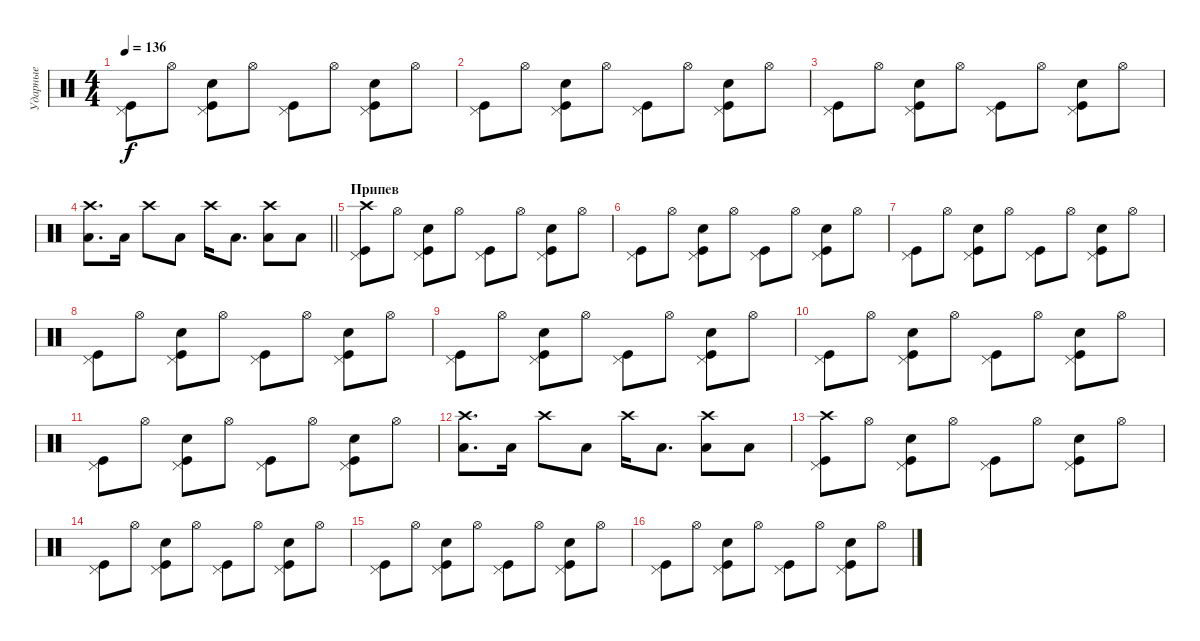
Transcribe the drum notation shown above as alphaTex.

\track ("Ударные" "Ударные") {instrument percussion}
\staff {score}
\articulation defaults
\ts (4 4)
\tempo 136
\clef neutral
\ks c
("Kick (hit)" "Pedal Hi-Hat (hit)").8{dy f} "Hi-Hat (open)".8 ("Kick (hit)" "Hand Clap (hit)" "Pedal Hi-Hat (hit)").8 "Hi-Hat (open)".8 ("Kick (hit)" "Pedal Hi-Hat (hit)").8 "Hi-Hat (open)".8 ("Kick (hit)" "Hand Clap (hit)" "Pedal Hi-Hat (hit)").8 "Hi-Hat (open)".8 |
("Kick (hit)" "Pedal Hi-Hat (hit)").8 "Hi-Hat (open)".8 ("Kick (hit)" "Hand Clap (hit)" "Pedal Hi-Hat (hit)").8 "Hi-Hat (open)".8 ("Kick (hit)" "Pedal Hi-Hat (hit)").8 "Hi-Hat (open)".8 ("Kick (hit)" "Hand Clap (hit)" "Pedal Hi-Hat (hit)").8 "Hi-Hat (open)".8 |
("Kick (hit)" "Pedal Hi-Hat (hit)").8 "Hi-Hat (open)".8 ("Kick (hit)" "Hand Clap (hit)" "Pedal Hi-Hat (hit)").8 "Hi-Hat (open)".8 ("Kick (hit)" "Pedal Hi-Hat (hit)").8 "Hi-Hat (open)".8 ("Kick (hit)" "Hand Clap (hit)" "Pedal Hi-Hat (hit)").8 "Hi-Hat (open)".8 |
\barLineRight lightlight
("Low Tom (hit)" "Crash high (hit)").8{d} "Low Tom (hit)".16 "Crash high (hit)".8 "Low Tom (hit)".8 "Crash high (hit)".16 "Low Tom (hit)".8{d} ("Low Tom (hit)" "Crash high (hit)").8 "Low Tom (hit)".8 |
\section ("" "Припев")
("Kick (hit)" "Crash high (hit)" "Pedal Hi-Hat (hit)").8 "Hi-Hat (open)".8 ("Kick (hit)" "Hand Clap (hit)" "Pedal Hi-Hat (hit)").8 "Hi-Hat (open)".8 ("Kick (hit)" "Pedal Hi-Hat (hit)").8 "Hi-Hat (open)".8 ("Kick (hit)" "Hand Clap (hit)" "Pedal Hi-Hat (hit)").8 "Hi-Hat (open)".8 |
("Kick (hit)" "Pedal Hi-Hat (hit)").8 "Hi-Hat (open)".8 ("Kick (hit)" "Hand Clap (hit)" "Pedal Hi-Hat (hit)").8 "Hi-Hat (open)".8 ("Kick (hit)" "Pedal Hi-Hat (hit)").8 "Hi-Hat (open)".8 ("Kick (hit)" "Hand Clap (hit)" "Pedal Hi-Hat (hit)").8 "Hi-Hat (open)".8 |
("Kick (hit)" "Pedal Hi-Hat (hit)").8 "Hi-Hat (open)".8 ("Kick (hit)" "Hand Clap (hit)" "Pedal Hi-Hat (hit)").8 "Hi-Hat (open)".8 ("Kick (hit)" "Pedal Hi-Hat (hit)").8 "Hi-Hat (open)".8 ("Kick (hit)" "Hand Clap (hit)" "Pedal Hi-Hat (hit)").8 "Hi-Hat (open)".8 |
("Kick (hit)" "Pedal Hi-Hat (hit)").8 "Hi-Hat (open)".8 ("Kick (hit)" "Hand Clap (hit)" "Pedal Hi-Hat (hit)").8 "Hi-Hat (open)".8 ("Kick (hit)" "Pedal Hi-Hat (hit)").8 "Hi-Hat (open)".8 ("Kick (hit)" "Hand Clap (hit)" "Pedal Hi-Hat (hit)").8 "Hi-Hat (open)".8 |
("Kick (hit)" "Pedal Hi-Hat (hit)").8 "Hi-Hat (open)".8 ("Kick (hit)" "Hand Clap (hit)" "Pedal Hi-Hat (hit)").8 "Hi-Hat (open)".8 ("Kick (hit)" "Pedal Hi-Hat (hit)").8 "Hi-Hat (open)".8 ("Kick (hit)" "Hand Clap (hit)" "Pedal Hi-Hat (hit)").8 "Hi-Hat (open)".8 |
("Kick (hit)" "Pedal Hi-Hat (hit)").8 "Hi-Hat (open)".8 ("Kick (hit)" "Hand Clap (hit)" "Pedal Hi-Hat (hit)").8 "Hi-Hat (open)".8 ("Kick (hit)" "Pedal Hi-Hat (hit)").8 "Hi-Hat (open)".8 ("Kick (hit)" "Hand Clap (hit)" "Pedal Hi-Hat (hit)").8 "Hi-Hat (open)".8 |
("Kick (hit)" "Pedal Hi-Hat (hit)").8 "Hi-Hat (open)".8 ("Kick (hit)" "Hand Clap (hit)" "Pedal Hi-Hat (hit)").8 "Hi-Hat (open)".8 ("Kick (hit)" "Pedal Hi-Hat (hit)").8 "Hi-Hat (open)".8 ("Kick (hit)" "Hand Clap (hit)" "Pedal Hi-Hat (hit)").8 "Hi-Hat (open)".8 |
("Low Tom (hit)" "Crash high (hit)").8{d} "Low Tom (hit)".16 "Crash high (hit)".8 "Low Tom (hit)".8 "Crash high (hit)".16 "Low Tom (hit)".8{d} ("Low Tom (hit)" "Crash high (hit)").8 "Low Tom (hit)".8 |
("Kick (hit)" "Crash high (hit)" "Pedal Hi-Hat (hit)").8 "Hi-Hat (open)".8 ("Kick (hit)" "Hand Clap (hit)" "Pedal Hi-Hat (hit)").8 "Hi-Hat (open)".8 ("Kick (hit)" "Pedal Hi-Hat (hit)").8 "Hi-Hat (open)".8 ("Kick (hit)" "Hand Clap (hit)" "Pedal Hi-Hat (hit)").8 "Hi-Hat (open)".8 |
("Kick (hit)" "Pedal Hi-Hat (hit)").8 "Hi-Hat (open)".8 ("Kick (hit)" "Hand Clap (hit)" "Pedal Hi-Hat (hit)").8 "Hi-Hat (open)".8 ("Kick (hit)" "Pedal Hi-Hat (hit)").8 "Hi-Hat (open)".8 ("Kick (hit)" "Hand Clap (hit)" "Pedal Hi-Hat (hit)").8 "Hi-Hat (open)".8 |
("Kick (hit)" "Pedal Hi-Hat (hit)").8 "Hi-Hat (open)".8 ("Kick (hit)" "Hand Clap (hit)" "Pedal Hi-Hat (hit)").8 "Hi-Hat (open)".8 ("Kick (hit)" "Pedal Hi-Hat (hit)").8 "Hi-Hat (open)".8 ("Kick (hit)" "Hand Clap (hit)" "Pedal Hi-Hat (hit)").8 "Hi-Hat (open)".8 |
("Kick (hit)" "Pedal Hi-Hat (hit)").8 "Hi-Hat (open)".8 ("Kick (hit)" "Hand Clap (hit)" "Pedal Hi-Hat (hit)").8 "Hi-Hat (open)".8 ("Kick (hit)" "Pedal Hi-Hat (hit)").8 "Hi-Hat (open)".8 ("Kick (hit)" "Hand Clap (hit)" "Pedal Hi-Hat (hit)").8 "Hi-Hat (open)".8
